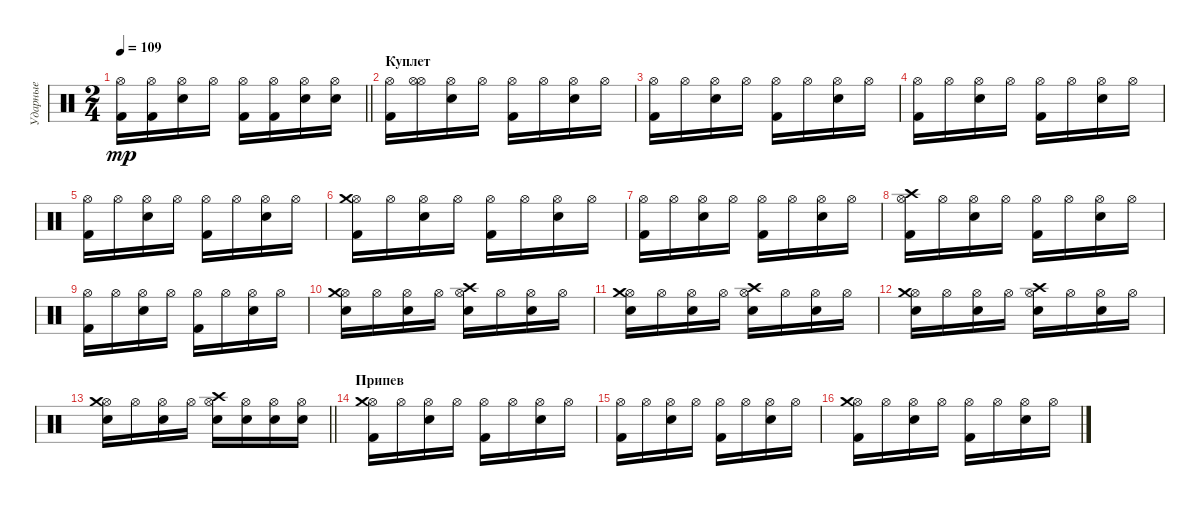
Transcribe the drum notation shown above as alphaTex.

\track ("Ударные" "Ударные") {instrument percussion}
\staff {score}
\articulation defaults
\ts (2 4)
\tempo 109
\clef neutral
\barLineRight lightlight
\ks c
("Kick (hit) 2" "Hi-Hat (open)").16{dy mp} ("Kick (hit) 2" "Hi-Hat (open)").16 ("Electric Snare (hit)" "Hi-Hat (open)").16 "Hi-Hat (open)".16 ("Kick (hit) 2" "Hi-Hat (open)").16 ("Kick (hit) 2" "Hi-Hat (open)").16 ("Electric Snare (hit)" "Hi-Hat (open)").16 ("Electric Snare (hit)" "Hi-Hat (open)").16 |
\section ("" "Куплет")
("Kick (hit) 2" "Hi-Hat (open)").16 ("Hi-Hat (open)" "Hi-Hat (open)").16 ("Electric Snare (hit)" "Hi-Hat (open)").16 "Hi-Hat (open)".16 ("Kick (hit) 2" "Hi-Hat (open)").16 "Hi-Hat (open)".16 ("Electric Snare (hit)" "Hi-Hat (open)").16 "Hi-Hat (open)".16 |
("Kick (hit) 2" "Hi-Hat (open)").16 "Hi-Hat (open)".16 ("Electric Snare (hit)" "Hi-Hat (open)").16 "Hi-Hat (open)".16 ("Kick (hit) 2" "Hi-Hat (open)").16 "Hi-Hat (open)".16 ("Electric Snare (hit)" "Hi-Hat (open)").16 "Hi-Hat (open)".16 |
("Kick (hit) 2" "Hi-Hat (open)").16 "Hi-Hat (open)".16 ("Electric Snare (hit)" "Hi-Hat (open)").16 "Hi-Hat (open)".16 ("Kick (hit) 2" "Hi-Hat (open)").16 "Hi-Hat (open)".16 ("Electric Snare (hit)" "Hi-Hat (open)").16 "Hi-Hat (open)".16 |
("Kick (hit) 2" "Hi-Hat (open)").16 "Hi-Hat (open)".16 ("Electric Snare (hit)" "Hi-Hat (open)").16 "Hi-Hat (open)".16 ("Kick (hit) 2" "Hi-Hat (open)").16 "Hi-Hat (open)".16 ("Electric Snare (hit)" "Hi-Hat (open)").16 "Hi-Hat (open)".16 |
("Kick (hit) 2" "Hi-Hat (open)" "Crash medium (hit)").16 "Hi-Hat (open)".16 ("Electric Snare (hit)" "Hi-Hat (open)").16 "Hi-Hat (open)".16 ("Kick (hit) 2" "Hi-Hat (open)").16 "Hi-Hat (open)".16 ("Electric Snare (hit)" "Hi-Hat (open)").16 "Hi-Hat (open)".16 |
("Kick (hit) 2" "Hi-Hat (open)").16 "Hi-Hat (open)".16 ("Electric Snare (hit)" "Hi-Hat (open)").16 "Hi-Hat (open)".16 ("Kick (hit) 2" "Hi-Hat (open)").16 "Hi-Hat (open)".16 ("Electric Snare (hit)" "Hi-Hat (open)").16 "Hi-Hat (open)".16 |
("Kick (hit) 2" "Hi-Hat (open)" "Crash high (hit)").16 "Hi-Hat (open)".16 ("Electric Snare (hit)" "Hi-Hat (open)").16 "Hi-Hat (open)".16 ("Kick (hit) 2" "Hi-Hat (open)").16 "Hi-Hat (open)".16 ("Electric Snare (hit)" "Hi-Hat (open)").16 "Hi-Hat (open)".16 |
("Kick (hit) 2" "Hi-Hat (open)").16 "Hi-Hat (open)".16 ("Electric Snare (hit)" "Hi-Hat (open)").16 "Hi-Hat (open)".16 ("Kick (hit) 2" "Hi-Hat (open)").16 "Hi-Hat (open)".16 ("Electric Snare (hit)" "Hi-Hat (open)").16 "Hi-Hat (open)".16 |
("Snare (hit) 2" "Hi-Hat (open)" "Crash medium (hit)").16 "Hi-Hat (open)".16 ("Electric Snare (hit)" "Hi-Hat (open)").16 "Hi-Hat (open)".16 ("Snare (hit) 2" "Hi-Hat (open)" "Crash high (hit)").16 "Hi-Hat (open)".16 ("Electric Snare (hit)" "Hi-Hat (open)").16 "Hi-Hat (open)".16 |
("Snare (hit) 2" "Hi-Hat (open)" "Crash medium (hit)").16 "Hi-Hat (open)".16 ("Electric Snare (hit)" "Hi-Hat (open)").16 "Hi-Hat (open)".16 ("Snare (hit) 2" "Hi-Hat (open)" "Crash high (hit)").16 "Hi-Hat (open)".16 ("Electric Snare (hit)" "Hi-Hat (open)").16 "Hi-Hat (open)".16 |
("Snare (hit) 2" "Hi-Hat (open)" "Crash medium (hit)").16 "Hi-Hat (open)".16 ("Electric Snare (hit)" "Hi-Hat (open)").16 "Hi-Hat (open)".16 ("Snare (hit) 2" "Hi-Hat (open)" "Crash high (hit)").16 "Hi-Hat (open)".16 ("Electric Snare (hit)" "Hi-Hat (open)").16 "Hi-Hat (open)".16 |
\barLineRight lightlight
("Snare (hit) 2" "Hi-Hat (open)" "Crash medium (hit)").16 "Hi-Hat (open)".16 ("Electric Snare (hit)" "Hi-Hat (open)").16 "Hi-Hat (open)".16 ("Snare (hit) 2" "Hi-Hat (open)" "Crash high (hit)").16 ("Electric Snare (hit)" "Hi-Hat (open)").16 ("Electric Snare (hit)" "Hi-Hat (open)").16 ("Electric Snare (hit)" "Hi-Hat (open)").16 |
\section ("" "Припев")
("Kick (hit) 2" "Hi-Hat (open)" "Crash medium (hit)").16 "Hi-Hat (open)".16 ("Electric Snare (hit)" "Hi-Hat (open)").16 "Hi-Hat (open)".16 ("Kick (hit) 2" "Hi-Hat (open)").16 "Hi-Hat (open)".16 ("Electric Snare (hit)" "Hi-Hat (open)").16 "Hi-Hat (open)".16 |
("Kick (hit) 2" "Hi-Hat (open)").16 "Hi-Hat (open)".16 ("Electric Snare (hit)" "Hi-Hat (open)").16 "Hi-Hat (open)".16 ("Kick (hit) 2" "Hi-Hat (open)").16 "Hi-Hat (open)".16 ("Electric Snare (hit)" "Hi-Hat (open)").16 "Hi-Hat (open)".16 |
("Kick (hit) 2" "Hi-Hat (open)" "Crash medium (hit)").16 "Hi-Hat (open)".16 ("Electric Snare (hit)" "Hi-Hat (open)").16 "Hi-Hat (open)".16 ("Kick (hit) 2" "Hi-Hat (open)").16 "Hi-Hat (open)".16 ("Electric Snare (hit)" "Hi-Hat (open)").16 "Hi-Hat (open)".16
